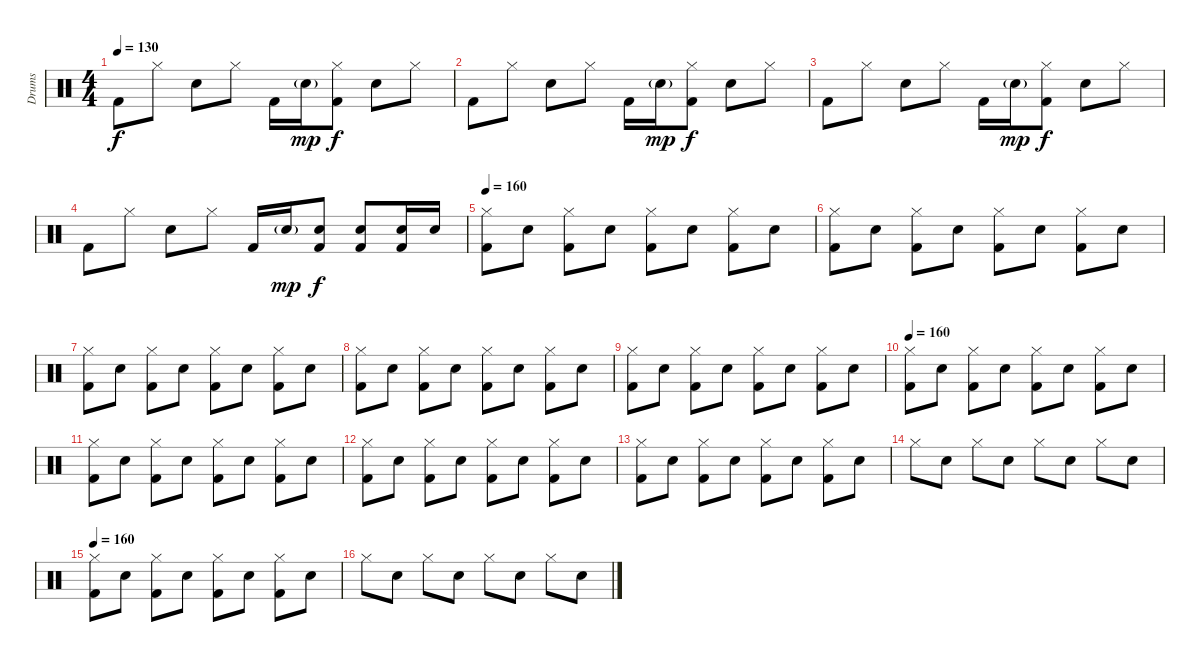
\track ("Drums" "Drums") {instrument percussion}
\staff {score}
\articulation defaults
\ts (4 4)
\tempo 130
\clef neutral
\ks c "Kick (hit) 2".8{dy f} "Hi-Hat (closed)".8 "Snare (hit) 2".8 "Hi-Hat (closed)".8 "Kick (hit) 2".16 "Snare (hit) 2"{g}.16{dy mp}
("Hi-Hat (closed)" "Kick (hit) 2").8{dy f} "Snare (hit) 2".8 "Hi-Hat (closed)".8 |
"Kick (hit) 2".8 "Hi-Hat (closed)".8 "Snare (hit) 2".8 "Hi-Hat (closed)".8 "Kick (hit) 2".16 "Snare (hit) 2"{g}.16{dy mp} ("Hi-Hat (closed)" "Kick (hit) 2").8{dy f} "Snare (hit) 2".8 "Hi-Hat (closed)".8 |
"Kick (hit) 2".8 "Hi-Hat (closed)".8 "Snare (hit) 2".8 "Hi-Hat (closed)".8 "Kick (hit) 2".16 "Snare (hit) 2"{g}.16{dy mp} ("Hi-Hat (closed)" "Kick (hit) 2").8{dy f} "Snare (hit) 2".8 "Hi-Hat (closed)".8 |
"Kick (hit) 2".8 "Hi-Hat (closed)".8 "Snare (hit) 2".8 "Hi-Hat (closed)".8 "Kick (hit) 2".16 "Snare (hit) 2"{g}.16{dy mp} ("Snare (hit) 2" "Kick (hit) 2").8{dy f} ("Snare (hit) 2" "Kick (hit) 2").8 ("Snare (hit) 2" "Kick (hit) 2").16 "Snare (hit) 2".16 |
\tempo 160
("Hi-Hat (closed)" "Kick (hit) 2").8 "Snare (hit) 2".8 ("Hi-Hat (closed)" "Kick (hit) 2").8 "Snare (hit) 2".8 ("Hi-Hat (closed)" "Kick (hit) 2").8 "Snare (hit) 2".8 ("Hi-Hat (closed)" "Kick (hit) 2").8 "Snare (hit) 2".8 |
("Hi-Hat (closed)" "Kick (hit) 2").8 "Snare (hit) 2".8 ("Hi-Hat (closed)" "Kick (hit) 2").8 "Snare (hit) 2".8 ("Hi-Hat (closed)" "Kick (hit) 2").8 "Snare (hit) 2".8 ("Hi-Hat (closed)" "Kick (hit) 2").8 "Snare (hit) 2".8 |
("Hi-Hat (closed)" "Kick (hit) 2").8 "Snare (hit) 2".8 ("Hi-Hat (closed)" "Kick (hit) 2").8 "Snare (hit) 2".8 ("Hi-Hat (closed)" "Kick (hit) 2").8 "Snare (hit) 2".8 ("Hi-Hat (closed)" "Kick (hit) 2").8 "Snare (hit) 2".8 |
("Hi-Hat (closed)" "Kick (hit) 2").8 "Snare (hit) 2".8 ("Hi-Hat (closed)" "Kick (hit) 2").8 "Snare (hit) 2".8 ("Hi-Hat (closed)" "Kick (hit) 2").8 "Snare (hit) 2".8 ("Hi-Hat (closed)" "Kick (hit) 2").8 "Snare (hit) 2".8 |
("Hi-Hat (closed)" "Kick (hit) 2").8 "Snare (hit) 2".8 ("Hi-Hat (closed)" "Kick (hit) 2").8 "Snare (hit) 2".8 ("Hi-Hat (closed)" "Kick (hit) 2").8 "Snare (hit) 2".8 ("Hi-Hat (closed)" "Kick (hit) 2").8 "Snare (hit) 2".8 |
\tempo 160
("Hi-Hat (closed)" "Kick (hit) 2").8 "Snare (hit) 2".8 ("Hi-Hat (closed)" "Kick (hit) 2").8 "Snare (hit) 2".8 ("Hi-Hat (closed)" "Kick (hit) 2").8 "Snare (hit) 2".8 ("Hi-Hat (closed)" "Kick (hit) 2").8 "Snare (hit) 2".8 |
("Hi-Hat (closed)" "Kick (hit) 2").8 "Snare (hit) 2".8 ("Hi-Hat (closed)" "Kick (hit) 2").8 "Snare (hit) 2".8 ("Hi-Hat (closed)" "Kick (hit) 2").8 "Snare (hit) 2".8 ("Hi-Hat (closed)" "Kick (hit) 2").8 "Snare (hit) 2".8 |
("Hi-Hat (closed)" "Kick (hit) 2").8 "Snare (hit) 2".8 ("Hi-Hat (closed)" "Kick (hit) 2").8 "Snare (hit) 2".8 ("Hi-Hat (closed)" "Kick (hit) 2").8 "Snare (hit) 2".8 ("Hi-Hat (closed)" "Kick (hit) 2").8 "Snare (hit) 2".8 |
("Hi-Hat (closed)" "Kick (hit) 2").8 "Snare (hit) 2".8 ("Hi-Hat (closed)" "Kick (hit) 2").8 "Snare (hit) 2".8 ("Hi-Hat (closed)" "Kick (hit) 2").8 "Snare (hit) 2".8 ("Hi-Hat (closed)" "Kick (hit) 2").8 "Snare (hit) 2".8 |
"Hi-Hat (closed)".8 "Snare (hit) 2".8 "Hi-Hat (closed)".8 "Snare (hit) 2".8 "Hi-Hat (closed)".8 "Snare (hit) 2".8 "Hi-Hat (closed)".8 "Snare (hit) 2".8 |
\tempo 160
("Hi-Hat (closed)" "Kick (hit) 2").8 "Snare (hit) 2".8 ("Hi-Hat (closed)" "Kick (hit) 2").8 "Snare (hit) 2".8 ("Hi-Hat (closed)" "Kick (hit) 2").8 "Snare (hit) 2".8 ("Hi-Hat (closed)" "Kick (hit) 2").8 "Snare (hit) 2".8 |
"Hi-Hat (closed)".8 "Snare (hit) 2".8 "Hi-Hat (closed)".8 "Snare (hit) 2".8 "Hi-Hat (closed)".8 "Snare (hit) 2".8 "Hi-Hat (closed)".8 "Snare (hit) 2".8
